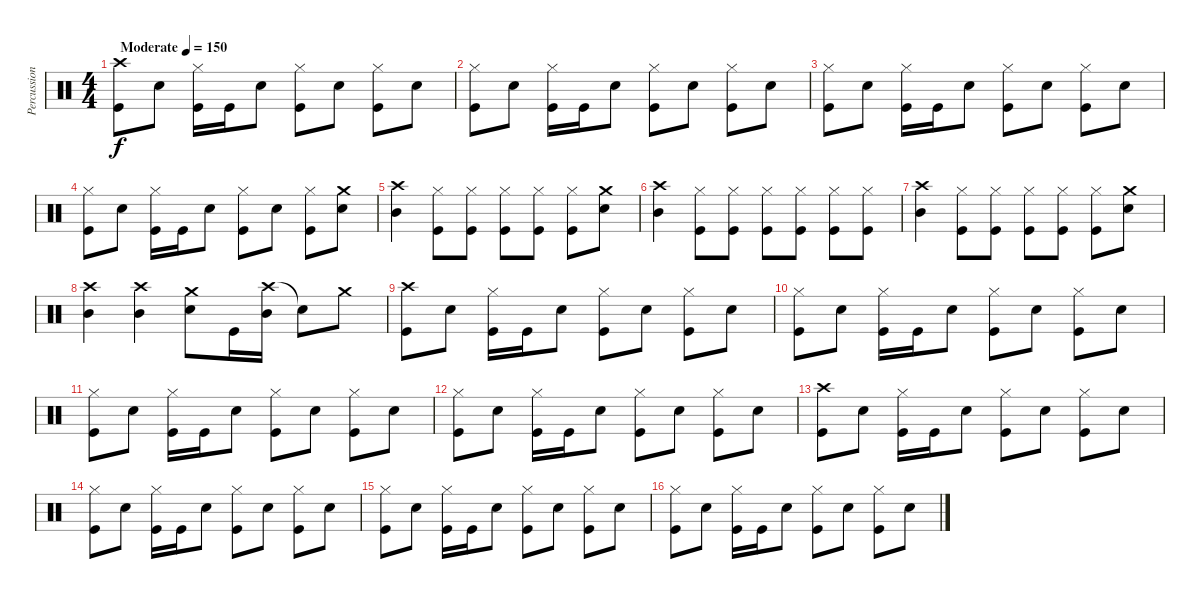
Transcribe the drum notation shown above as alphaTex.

\track ("Percussions" "Percussion") {instrument percussion}
\staff {score}
\articulation defaults
\ts (4 4)
\tempo (150 "Moderate")
\clef neutral
\ks c
("Crash high (hit)" "Kick (hit)").8{dy f} "Electric Snare (hit)".8 ("Hi-Hat (closed)" "Kick (hit)").16 "Kick (hit)".16 "Electric Snare (hit)".8 ("Hi-Hat (closed)" "Kick (hit)").8 "Electric Snare (hit)".8 ("Hi-Hat (closed)" "Kick (hit)").8 "Electric Snare (hit)".8 |
("Hi-Hat (closed)" "Kick (hit)").8 "Electric Snare (hit)".8 ("Hi-Hat (closed)" "Kick (hit)").16 "Kick (hit)".16 "Electric Snare (hit)".8 ("Hi-Hat (closed)" "Kick (hit)").8 "Electric Snare (hit)".8 ("Hi-Hat (closed)" "Kick (hit)").8 "Electric Snare (hit)".8 |
("Hi-Hat (closed)" "Kick (hit)").8 "Electric Snare (hit)".8 ("Hi-Hat (closed)" "Kick (hit)").16 "Kick (hit)".16 "Electric Snare (hit)".8 ("Hi-Hat (closed)" "Kick (hit)").8 "Electric Snare (hit)".8 ("Hi-Hat (closed)" "Kick (hit)").8 "Electric Snare (hit)".8 |
("Hi-Hat (closed)" "Kick (hit)").8 "Electric Snare (hit)".8 ("Hi-Hat (closed)" "Kick (hit)").16 "Kick (hit)".16 "Electric Snare (hit)".8 ("Hi-Hat (closed)" "Kick (hit)").8 "Electric Snare (hit)".8 ("Hi-Hat (closed)" "Kick (hit)").8 ("Crash medium (hit)" "Electric Snare (hit)").8 |
("Crash high (hit)" "Mid Tom (hit)").4 ("Hi-Hat (closed)" "Kick (hit)").8 ("Hi-Hat (closed)" "Kick (hit)").8 ("Hi-Hat (closed)" "Kick (hit)").8 ("Hi-Hat (closed)" "Kick (hit)").8 ("Hi-Hat (closed)" "Kick (hit)").8 ("Crash medium (hit)" "Electric Snare (hit)").8 |
("Crash high (hit)" "Mid Tom (hit)").4 ("Hi-Hat (closed)" "Kick (hit)").8 ("Hi-Hat (closed)" "Kick (hit)").8 ("Hi-Hat (closed)" "Kick (hit)").8 ("Hi-Hat (closed)" "Kick (hit)").8 ("Hi-Hat (closed)" "Kick (hit)").8 ("Hi-Hat (closed)" "Kick (hit)").8 |
("Crash high (hit)" "Mid Tom (hit)").4 ("Hi-Hat (closed)" "Kick (hit)").8 ("Hi-Hat (closed)" "Kick (hit)").8 ("Hi-Hat (closed)" "Kick (hit)").8 ("Hi-Hat (closed)" "Kick (hit)").8 ("Hi-Hat (closed)" "Kick (hit)").8 ("Crash medium (hit)" "Electric Snare (hit)").8 |
("Crash high (hit)" "Mid Tom (hit)").4 ("Crash high (hit)" "Mid Tom (hit)").4 ("Crash medium (hit)" "Electric Snare (hit)").8 "Kick (hit)".16 ("Crash high (hit)" "Mid Tom (hit)").16 "Snare (hit)"{t}.8 "Crash medium (hit)".8 |
("Crash high (hit)" "Kick (hit)").8 "Electric Snare (hit)".8 ("Hi-Hat (closed)" "Kick (hit)").16 "Kick (hit)".16 "Electric Snare (hit)".8 ("Hi-Hat (closed)" "Kick (hit)").8 "Electric Snare (hit)".8 ("Hi-Hat (closed)" "Kick (hit)").8 "Electric Snare (hit)".8 |
("Hi-Hat (closed)" "Kick (hit)").8 "Electric Snare (hit)".8 ("Hi-Hat (closed)" "Kick (hit)").16 "Kick (hit)".16 "Electric Snare (hit)".8 ("Hi-Hat (closed)" "Kick (hit)").8 "Electric Snare (hit)".8 ("Hi-Hat (closed)" "Kick (hit)").8 "Electric Snare (hit)".8 |
("Hi-Hat (closed)" "Kick (hit)").8 "Electric Snare (hit)".8 ("Hi-Hat (closed)" "Kick (hit)").16 "Kick (hit)".16 "Electric Snare (hit)".8 ("Hi-Hat (closed)" "Kick (hit)").8 "Electric Snare (hit)".8 ("Hi-Hat (closed)" "Kick (hit)").8 "Electric Snare (hit)".8 |
("Hi-Hat (closed)" "Kick (hit)").8 "Electric Snare (hit)".8 ("Hi-Hat (closed)" "Kick (hit)").16 "Kick (hit)".16 "Electric Snare (hit)".8 ("Hi-Hat (closed)" "Kick (hit)").8 "Electric Snare (hit)".8 ("Hi-Hat (closed)" "Kick (hit)").8 "Electric Snare (hit)".8 |
("Crash high (hit)" "Kick (hit)").8 "Electric Snare (hit)".8 ("Hi-Hat (closed)" "Kick (hit)").16 "Kick (hit)".16 "Electric Snare (hit)".8 ("Hi-Hat (closed)" "Kick (hit)").8 "Electric Snare (hit)".8 ("Hi-Hat (closed)" "Kick (hit)").8 "Electric Snare (hit)".8 |
("Hi-Hat (closed)" "Kick (hit)").8 "Electric Snare (hit)".8 ("Hi-Hat (closed)" "Kick (hit)").16 "Kick (hit)".16 "Electric Snare (hit)".8 ("Hi-Hat (closed)" "Kick (hit)").8 "Electric Snare (hit)".8 ("Hi-Hat (closed)" "Kick (hit)").8 "Electric Snare (hit)".8 |
("Hi-Hat (closed)" "Kick (hit)").8 "Electric Snare (hit)".8 ("Hi-Hat (closed)" "Kick (hit)").16 "Kick (hit)".16 "Electric Snare (hit)".8 ("Hi-Hat (closed)" "Kick (hit)").8 "Electric Snare (hit)".8 ("Hi-Hat (closed)" "Kick (hit)").8 "Electric Snare (hit)".8 |
("Hi-Hat (closed)" "Kick (hit)").8 "Electric Snare (hit)".8 ("Hi-Hat (closed)" "Kick (hit)").16 "Kick (hit)".16 "Electric Snare (hit)".8 ("Hi-Hat (closed)" "Kick (hit)").8 "Electric Snare (hit)".8 ("Hi-Hat (closed)" "Kick (hit)").8 "Electric Snare (hit)".8
